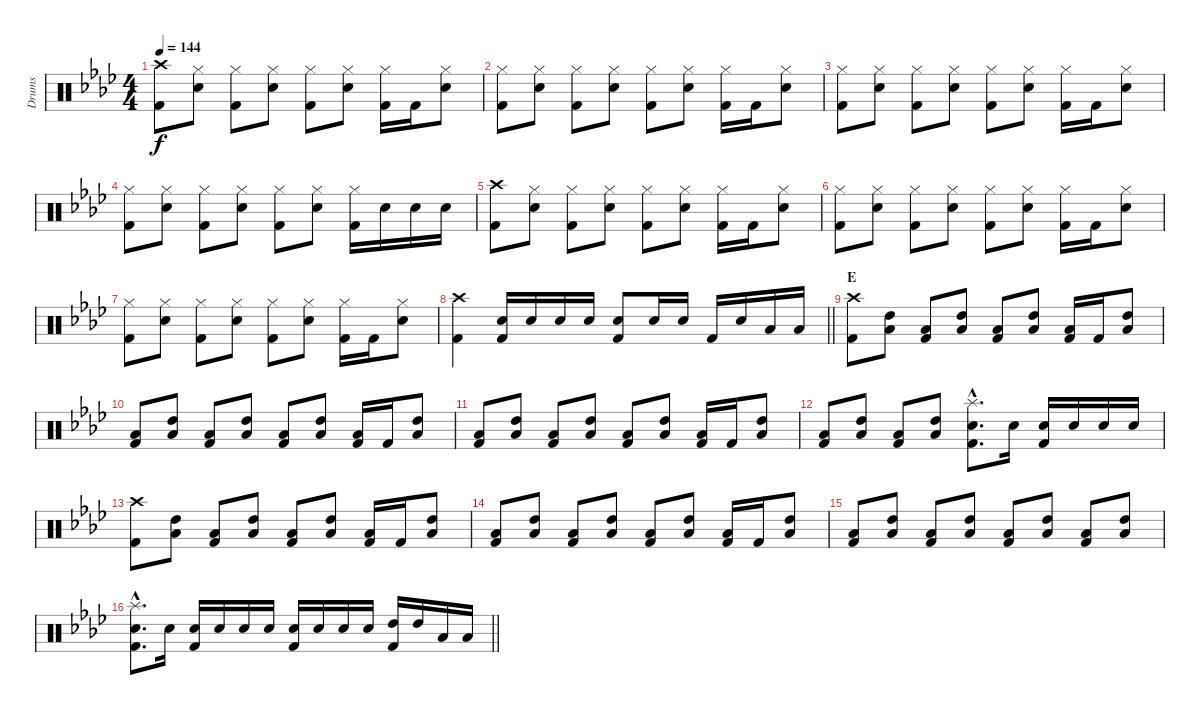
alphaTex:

\track ("Drums" "Drums") {instrument percussion}
\staff {score}
\articulation defaults
\ts (4 4)
\tempo 144
\clef neutral
\ks ab
("Crash high (hit)" "Kick (hit) 2").8{dy f} ("Hi-Hat (closed)" "Snare (hit) 2").8 ("Hi-Hat (closed)" "Kick (hit) 2").8 ("Hi-Hat (closed)" "Snare (hit) 2").8 ("Hi-Hat (closed)" "Kick (hit) 2").8 ("Hi-Hat (closed)" "Snare (hit) 2").8 ("Hi-Hat (closed)" "Kick (hit) 2").16 "Kick (hit) 2".16 ("Hi-Hat (closed)" "Snare (hit) 2").8 |
("Hi-Hat (closed)" "Kick (hit) 2").8 ("Hi-Hat (closed)" "Snare (hit) 2").8 ("Hi-Hat (closed)" "Kick (hit) 2").8 ("Hi-Hat (closed)" "Snare (hit) 2").8 ("Hi-Hat (closed)" "Kick (hit) 2").8 ("Hi-Hat (closed)" "Snare (hit) 2").8 ("Hi-Hat (closed)" "Kick (hit) 2").16 "Kick (hit) 2".16 ("Hi-Hat (closed)" "Snare (hit) 2").8 |
("Hi-Hat (closed)" "Kick (hit) 2").8 ("Hi-Hat (closed)" "Snare (hit) 2").8 ("Hi-Hat (closed)" "Kick (hit) 2").8 ("Hi-Hat (closed)" "Snare (hit) 2").8 ("Hi-Hat (closed)" "Kick (hit) 2").8 ("Hi-Hat (closed)" "Snare (hit) 2").8 ("Hi-Hat (closed)" "Kick (hit) 2").16 "Kick (hit) 2".16 ("Hi-Hat (closed)" "Snare (hit) 2").8 |
("Hi-Hat (closed)" "Kick (hit) 2").8 ("Hi-Hat (closed)" "Snare (hit) 2").8 ("Hi-Hat (closed)" "Kick (hit) 2").8 ("Hi-Hat (closed)" "Snare (hit) 2").8 ("Hi-Hat (closed)" "Kick (hit) 2").8 ("Hi-Hat (closed)" "Snare (hit) 2").8 ("Hi-Hat (closed)" "Kick (hit) 2").16 "Snare (hit) 2".16 "Snare (hit) 2".16 "Snare (hit) 2".16 |
("Crash high (hit)" "Kick (hit) 2").8 ("Hi-Hat (closed)" "Snare (hit) 2").8 ("Hi-Hat (closed)" "Kick (hit) 2").8 ("Hi-Hat (closed)" "Snare (hit) 2").8 ("Hi-Hat (closed)" "Kick (hit) 2").8 ("Hi-Hat (closed)" "Snare (hit) 2").8 ("Hi-Hat (closed)" "Kick (hit) 2").16 "Kick (hit) 2".16 ("Hi-Hat (closed)" "Snare (hit) 2").8 |
("Hi-Hat (closed)" "Kick (hit) 2").8 ("Hi-Hat (closed)" "Snare (hit) 2").8 ("Hi-Hat (closed)" "Kick (hit) 2").8 ("Hi-Hat (closed)" "Snare (hit) 2").8 ("Hi-Hat (closed)" "Kick (hit) 2").8 ("Hi-Hat (closed)" "Snare (hit) 2").8 ("Hi-Hat (closed)" "Kick (hit) 2").16 "Kick (hit) 2".16 ("Hi-Hat (closed)" "Snare (hit) 2").8 |
("Hi-Hat (closed)" "Kick (hit) 2").8 ("Hi-Hat (closed)" "Snare (hit) 2").8 ("Hi-Hat (closed)" "Kick (hit) 2").8 ("Hi-Hat (closed)" "Snare (hit) 2").8 ("Hi-Hat (closed)" "Kick (hit) 2").8 ("Hi-Hat (closed)" "Snare (hit) 2").8 ("Hi-Hat (closed)" "Kick (hit) 2").16 "Kick (hit) 2".16 ("Hi-Hat (closed)" "Snare (hit) 2").8 |
\barLineRight lightlight
("Crash high (hit)" "Kick (hit) 2").4 ("Snare (hit) 2" "Kick (hit) 2").16 "Snare (hit) 2".16 "Snare (hit) 2".16 "Snare (hit) 2".16 ("Snare (hit) 2" "Kick (hit) 2").8 "Snare (hit) 2".16 "Snare (hit) 2".16 "Kick (hit) 2".16 "Snare (hit) 2".16 "Low Tom (hit)".16 "Low Tom (hit)".16 |
\section ("" "E")
("Crash high (hit)" "Kick (hit) 2").8 ("High Tom (hit)" "Low Tom (hit)").8 ("Low Tom (hit)" "Kick (hit) 2").8 ("High Tom (hit)" "Low Tom (hit)").8 ("Low Tom (hit)" "Kick (hit) 2").8 ("High Tom (hit)" "Low Tom (hit)").8 ("Low Tom (hit)" "Kick (hit) 2").16 "Kick (hit) 2".16 ("High Tom (hit)" "Low Tom (hit)").8 |
("Low Tom (hit)" "Kick (hit) 2").8 ("High Tom (hit)" "Low Tom (hit)").8 ("Low Tom (hit)" "Kick (hit) 2").8 ("High Tom (hit)" "Low Tom (hit)").8 ("Low Tom (hit)" "Kick (hit) 2").8 ("High Tom (hit)" "Low Tom (hit)").8 ("Low Tom (hit)" "Kick (hit) 2").16 "Kick (hit) 2".16 ("High Tom (hit)" "Low Tom (hit)").8 |
("Low Tom (hit)" "Kick (hit) 2").8 ("High Tom (hit)" "Low Tom (hit)").8 ("Low Tom (hit)" "Kick (hit) 2").8 ("High Tom (hit)" "Low Tom (hit)").8 ("Low Tom (hit)" "Kick (hit) 2").8 ("High Tom (hit)" "Low Tom (hit)").8 ("Low Tom (hit)" "Kick (hit) 2").16 "Kick (hit) 2".16 ("High Tom (hit)" "Low Tom (hit)").8 |
("Low Tom (hit)" "Kick (hit) 2").8 ("High Tom (hit)" "Low Tom (hit)").8 ("Low Tom (hit)" "Kick (hit) 2").8 ("High Tom (hit)" "Low Tom (hit)").8 ("Splash (hit)"{hac} "Snare (hit) 2"{hac} "Kick (hit) 2"{hac}).8{d} "Snare (hit) 2".16 ("Snare (hit) 2" "Kick (hit) 2").16 "Snare (hit) 2".16 "Snare (hit) 2".16 "Snare (hit) 2".16 |
("Crash high (hit)" "Kick (hit) 2").8 ("High Tom (hit)" "Low Tom (hit)").8 ("Low Tom (hit)" "Kick (hit) 2").8 ("High Tom (hit)" "Low Tom (hit)").8 ("Low Tom (hit)" "Kick (hit) 2").8 ("High Tom (hit)" "Low Tom (hit)").8 ("Low Tom (hit)" "Kick (hit) 2").16 "Kick (hit) 2".16 ("High Tom (hit)" "Low Tom (hit)").8 |
("Low Tom (hit)" "Kick (hit) 2").8 ("High Tom (hit)" "Low Tom (hit)").8 ("Low Tom (hit)" "Kick (hit) 2").8 ("High Tom (hit)" "Low Tom (hit)").8 ("Low Tom (hit)" "Kick (hit) 2").8 ("High Tom (hit)" "Low Tom (hit)").8 ("Low Tom (hit)" "Kick (hit) 2").16 "Kick (hit) 2".16 ("High Tom (hit)" "Low Tom (hit)").8 |
("Low Tom (hit)" "Kick (hit) 2").8 ("High Tom (hit)" "Low Tom (hit)").8 ("Low Tom (hit)" "Kick (hit) 2").8 ("High Tom (hit)" "Low Tom (hit)").8 ("Low Tom (hit)" "Kick (hit) 2").8 ("High Tom (hit)" "Low Tom (hit)").8 ("Low Tom (hit)" "Kick (hit) 2").8 ("High Tom (hit)" "Low Tom (hit)").8 |
\barLineRight lightlight
("Splash (hit)"{hac} "Snare (hit) 2"{hac} "Kick (hit) 2"{hac}).8{d} "Snare (hit) 2".16 ("Snare (hit) 2" "Kick (hit) 2").16 "Snare (hit) 2".16 "Snare (hit) 2".16 "Snare (hit) 2".16 ("Snare (hit) 2" "Kick (hit) 2").16 "Snare (hit) 2".16 "Snare (hit) 2".16 "Snare (hit) 2".16 ("High Tom (hit)" "Kick (hit) 2").16 "High Tom (hit)".16 "Low Tom (hit)".16 "Low Tom (hit)".16
